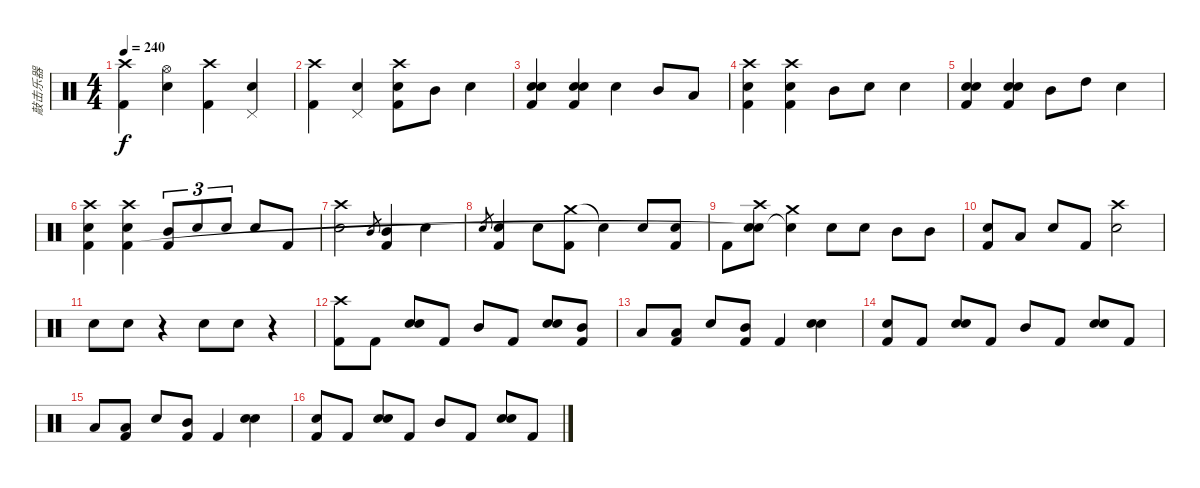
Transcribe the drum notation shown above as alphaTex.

\track ("敲击乐器" "敲击乐器") {instrument percussion}
\staff {score}
\articulation defaults
\ts (4 4)
\tempo 240
\clef neutral
\ks c
("Crash high (hit)" "Kick (hit) 2").4{dy f} ("Hi-Hat (open)" "Electric Snare (hit)").4 ("Crash high (hit)" "Kick (hit) 2").4 ("Pedal Hi-Hat (hit)" "Electric Snare (hit)").4 |
("Crash high (hit)" "Kick (hit) 2").4 ("Pedal Hi-Hat (hit)" "Electric Snare (hit)").4 ("Crash high (hit)" "Electric Snare (hit)" "Kick (hit) 2").8 "Mid Tom (hit)".8 "Snare (hit) 2".4 |
("Electric Snare (hit)" "Snare (hit) 2" "Kick (hit) 2").4 ("Electric Snare (hit)" "Snare (hit) 2" "Kick (hit) 2").4 "Electric Snare (hit)".4 "Mid Tom (hit)".8 "Low Tom (hit)".8 |
("Crash high (hit)" "Electric Snare (hit)" "Kick (hit) 2").4 ("Crash high (hit)" "Electric Snare (hit)" "Kick (hit) 2").4 "Mid Tom (hit)".8 "Electric Snare (hit)".8 "Electric Snare (hit)".4 |
("Electric Snare (hit)" "Snare (hit) 2" "Kick (hit) 2").4 ("Electric Snare (hit)" "Snare (hit) 2" "Kick (hit) 2").4 "Mid Tom (hit)".8 "High Tom (hit)".8 "Snare (hit) 2".4 |
("Crash high (hit)" "Electric Snare (hit)" "Kick (hit) 2").4 ("Crash high (hit)" "Electric Snare (hit)" "Kick (hit) 2").4 ("Mid Tom (hit)" "Kick (hit) 2").8{tu (3 2)} "Electric Snare (hit)".8{tu (3 2)} "Electric Snare (hit)".8{tu (3 2)} "Electric Snare (hit)".8 "Kick (hit) 2".8 |
("Crash high (hit)" "Electric Snare (hit)").2 "Mid Tom (hit)".8{gr} ("Mid Tom (hit)" "Kick (hit) 2").4 "Snare (hit) 2".4 |
"Electric Snare (hit)".8{gr} ("Electric Snare (hit)" "Kick (hit) 2").4 "Electric Snare (hit)".8 ("Crash medium (hit)" "Kick (hit) 2").8 "Snare (hit)"{t}.4 "Electric Snare (hit)".8 ("Electric Snare (hit)" "Kick (hit) 2").8 |
"Kick (hit) 2".8 ("Crash high (hit)" "Electric Snare (hit)" "Snare (hit)"{t}).8 ("Crash medium (hit)" "Snare (hit)"{t}).4 "Electric Snare (hit)".8 "Electric Snare (hit)".8 "Mid Tom (hit)".8 "Mid Tom (hit)".8 |
("Snare (hit) 2" "Kick (hit) 2").8 "Low Tom (hit)".8 "Snare (hit) 2".8 "Kick (hit) 2".8 ("Crash high (hit)" "Electric Snare (hit)").2 |
"Electric Snare (hit)".8 "Electric Snare (hit)".8 r.4 "Electric Snare (hit)".8 "Electric Snare (hit)".8 r.4 |
("Crash high (hit)" "Kick (hit) 2").8 "Kick (hit) 2".8 ("Electric Snare (hit)" "Snare (hit) 2").8 "Kick (hit) 2".8 "Mid Tom (hit)".8 "Kick (hit) 2".8 ("Electric Snare (hit)" "Snare (hit) 2").8 ("Mid Tom (hit)" "Kick (hit) 2").8 |
"Low Tom (hit)".8 ("Low Tom (hit)" "Kick (hit) 2").8 "Electric Snare (hit)".8 ("Mid Tom (hit)" "Kick (hit) 2").8 "Kick (hit) 2".4 ("Electric Snare (hit)" "Snare (hit) 2").4 |
("Snare (hit) 2" "Kick (hit) 2").8 "Kick (hit) 2".8 ("Electric Snare (hit)" "Snare (hit) 2").8 "Kick (hit) 2".8 "Mid Tom (hit)".8 "Kick (hit) 2".8 ("Electric Snare (hit)" "Snare (hit) 2").8 "Kick (hit) 2".8 |
"Low Tom (hit)".8 ("Low Tom (hit)" "Kick (hit) 2").8 "Electric Snare (hit)".8 ("Mid Tom (hit)" "Kick (hit) 2").8 "Kick (hit) 2".4 ("Electric Snare (hit)" "Snare (hit) 2").4 |
("Snare (hit) 2" "Kick (hit) 2").8 "Kick (hit) 2".8 ("Electric Snare (hit)" "Snare (hit) 2").8 "Kick (hit) 2".8 "Mid Tom (hit)".8 "Kick (hit) 2".8 ("Electric Snare (hit)" "Snare (hit) 2").8 "Kick (hit) 2".8
